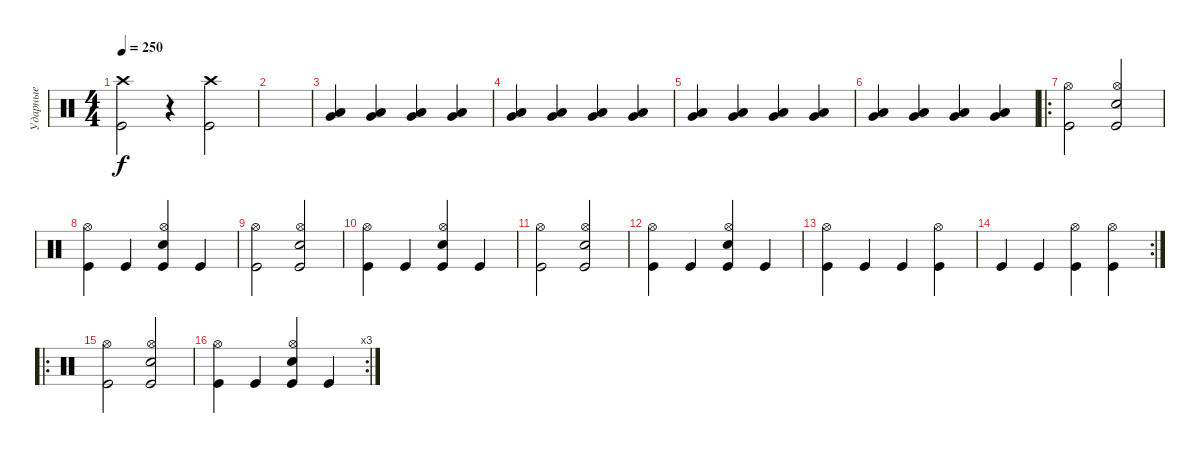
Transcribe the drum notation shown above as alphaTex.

\track ("Ударные" "Ударные") {instrument percussion}
\staff {score}
\articulation defaults
\ts (4 4)
\tempo 250
\clef neutral
\ks c
("Crash high (hit)" "Kick (hit)").2{dy f} r.4 ("Crash high (hit)" "Kick (hit)").2 |
|
("Low Floor Tom (hit)" "Very Low Tom (hit)").4 ("Very Low Tom (hit)" "Low Floor Tom (hit)").4 ("Very Low Tom (hit)" "Low Floor Tom (hit)").4 ("Very Low Tom (hit)" "Low Floor Tom (hit)").4 |
("Very Low Tom (hit)" "Low Floor Tom (hit)").4 ("Very Low Tom (hit)" "Low Floor Tom (hit)").4 ("Low Floor Tom (hit)" "Very Low Tom (hit)").4 ("Very Low Tom (hit)" "Low Floor Tom (hit)").4 |
("Low Floor Tom (hit)" "Very Low Tom (hit)").4 ("Very Low Tom (hit)" "Low Floor Tom (hit)").4 ("Very Low Tom (hit)" "Low Floor Tom (hit)").4 ("Very Low Tom (hit)" "Low Floor Tom (hit)").4 |
("Very Low Tom (hit)" "Low Floor Tom (hit)").4 ("Very Low Tom (hit)" "Low Floor Tom (hit)").4 ("Low Floor Tom (hit)" "Very Low Tom (hit)").4 ("Very Low Tom (hit)" "Low Floor Tom (hit)").4 |
\ro
("Hi-Hat (open)" "Kick (hit)").2 ("Hi-Hat (open)" "Snare (hit) 2" "Kick (hit)").2 |
("Hi-Hat (open)" "Kick (hit)").4 "Kick (hit)".4 ("Hi-Hat (open)" "Snare (hit) 2" "Kick (hit)").4 "Kick (hit)".4 |
("Hi-Hat (open)" "Kick (hit)").2 ("Hi-Hat (open)" "Snare (hit) 2" "Kick (hit)").2 |
("Hi-Hat (open)" "Kick (hit)").4 "Kick (hit)".4 ("Hi-Hat (open)" "Snare (hit) 2" "Kick (hit)").4 "Kick (hit)".4 |
("Hi-Hat (open)" "Kick (hit)").2 ("Hi-Hat (open)" "Snare (hit) 2" "Kick (hit)").2 |
("Hi-Hat (open)" "Kick (hit)").4 "Kick (hit)".4 ("Hi-Hat (open)" "Snare (hit) 2" "Kick (hit)").4 "Kick (hit)".4 |
("Kick (hit)" "Hi-Hat (open)").4 "Kick (hit)".4 "Kick (hit)".4 ("Hi-Hat (open)" "Kick (hit)").4 |
\rc 2 "Kick (hit)".4 "Kick (hit)".4
("Hi-Hat (open)" "Kick (hit)").4 ("Hi-Hat (open)" "Kick (hit)").4 |
\ro
("Hi-Hat (open)" "Kick (hit)").2 ("Hi-Hat (open)" "Snare (hit) 2" "Kick (hit)").2 |
\rc 3
("Hi-Hat (open)" "Kick (hit)").4 "Kick (hit)".4 ("Hi-Hat (open)" "Snare (hit) 2" "Kick (hit)").4 "Kick (hit)".4
